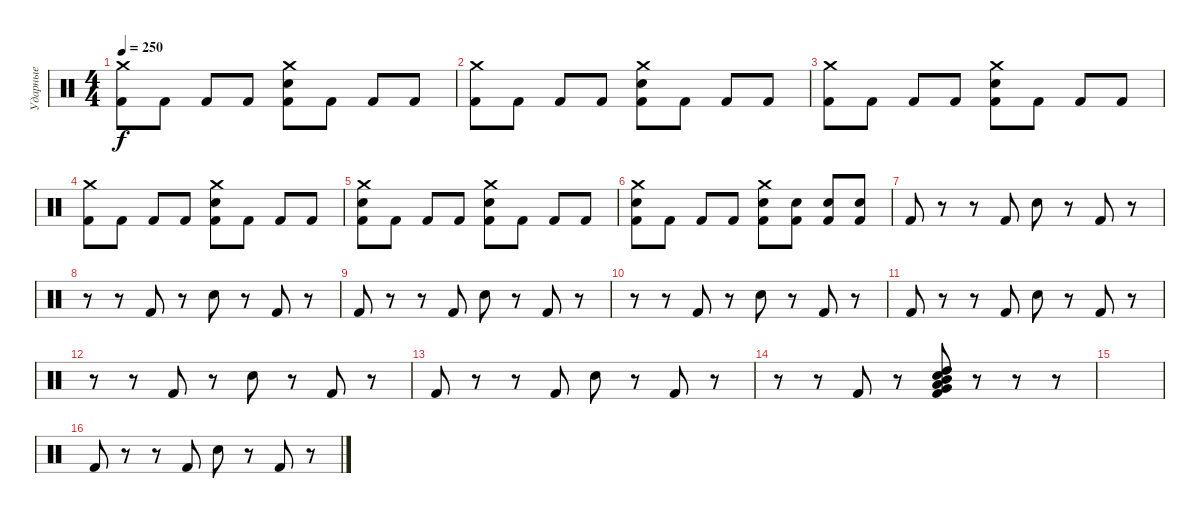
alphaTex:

\track ("Ударные" "Ударные") {instrument percussion}
\staff {score}
\articulation defaults
\ts (4 4)
\tempo 250
\clef neutral
\ks c
("Crash medium (hit)" "Kick (hit) 2").8{dy f} "Kick (hit) 2".8 "Kick (hit) 2".8 "Kick (hit) 2".8 ("Crash medium (hit)" "Snare (hit) 2" "Kick (hit) 2").8 "Kick (hit) 2".8 "Kick (hit) 2".8 "Kick (hit) 2".8 |
("Crash medium (hit)" "Kick (hit) 2").8 "Kick (hit) 2".8 "Kick (hit) 2".8 "Kick (hit) 2".8 ("Crash medium (hit)" "Snare (hit) 2" "Kick (hit) 2").8 "Kick (hit) 2".8 "Kick (hit) 2".8 "Kick (hit) 2".8 |
("Crash medium (hit)" "Kick (hit) 2").8 "Kick (hit) 2".8 "Kick (hit) 2".8 "Kick (hit) 2".8 ("Crash medium (hit)" "Snare (hit) 2" "Kick (hit) 2").8 "Kick (hit) 2".8 "Kick (hit) 2".8 "Kick (hit) 2".8 |
("Crash medium (hit)" "Kick (hit) 2").8 "Kick (hit) 2".8 "Kick (hit) 2".8 "Kick (hit) 2".8 ("Crash medium (hit)" "Snare (hit) 2" "Kick (hit) 2").8 "Kick (hit) 2".8 "Kick (hit) 2".8 "Kick (hit) 2".8 |
("Crash medium (hit)" "Snare (hit) 2" "Kick (hit) 2").8 "Kick (hit) 2".8 "Kick (hit) 2".8 "Kick (hit) 2".8 ("Crash medium (hit)" "Snare (hit) 2" "Kick (hit) 2").8 "Kick (hit) 2".8 "Kick (hit) 2".8 "Kick (hit) 2".8 |
("Crash medium (hit)" "Snare (hit) 2" "Kick (hit) 2").8 "Kick (hit) 2".8 "Kick (hit) 2".8 "Kick (hit) 2".8 ("Crash medium (hit)" "Snare (hit) 2" "Kick (hit) 2").8 ("Snare (hit) 2" "Kick (hit) 2").8 ("Snare (hit) 2" "Kick (hit) 2").8 ("Snare (hit) 2" "Kick (hit) 2").8 |
"Kick (hit) 2".8 r.8 r.8 "Kick (hit) 2".8 "Snare (hit) 2".8 r.8 "Kick (hit) 2".8 r.8 |
r.8 r.8 "Kick (hit) 2".8 r.8 "Snare (hit) 2".8 r.8 "Kick (hit) 2".8 r.8 |
"Kick (hit) 2".8 r.8 r.8 "Kick (hit) 2".8 "Snare (hit) 2".8 r.8 "Kick (hit) 2".8 r.8 |
r.8 r.8 "Kick (hit) 2".8 r.8 "Snare (hit) 2".8 r.8 "Kick (hit) 2".8 r.8 |
"Kick (hit) 2".8 r.8 r.8 "Kick (hit) 2".8 "Snare (hit) 2".8 r.8 "Kick (hit) 2".8 r.8 |
r.8 r.8 "Kick (hit) 2".8 r.8 "Snare (hit) 2".8 r.8 "Kick (hit) 2".8 r.8 |
"Kick (hit) 2".8 r.8 r.8 "Kick (hit) 2".8 "Snare (hit) 2".8 r.8 "Kick (hit) 2".8 r.8 |
r.8 r.8 "Kick (hit) 2".8 r.8 ("Kick (hit) 2" "Very Low Tom (hit)" "Low Tom (hit)" "Mid Tom (hit)" "Snare (hit) 2" "High Tom (hit)").8 r.8 r.8 r.8 |
|
"Kick (hit) 2".8 r.8 r.8 "Kick (hit) 2".8 "Snare (hit) 2".8 r.8 "Kick (hit) 2".8 r.8
